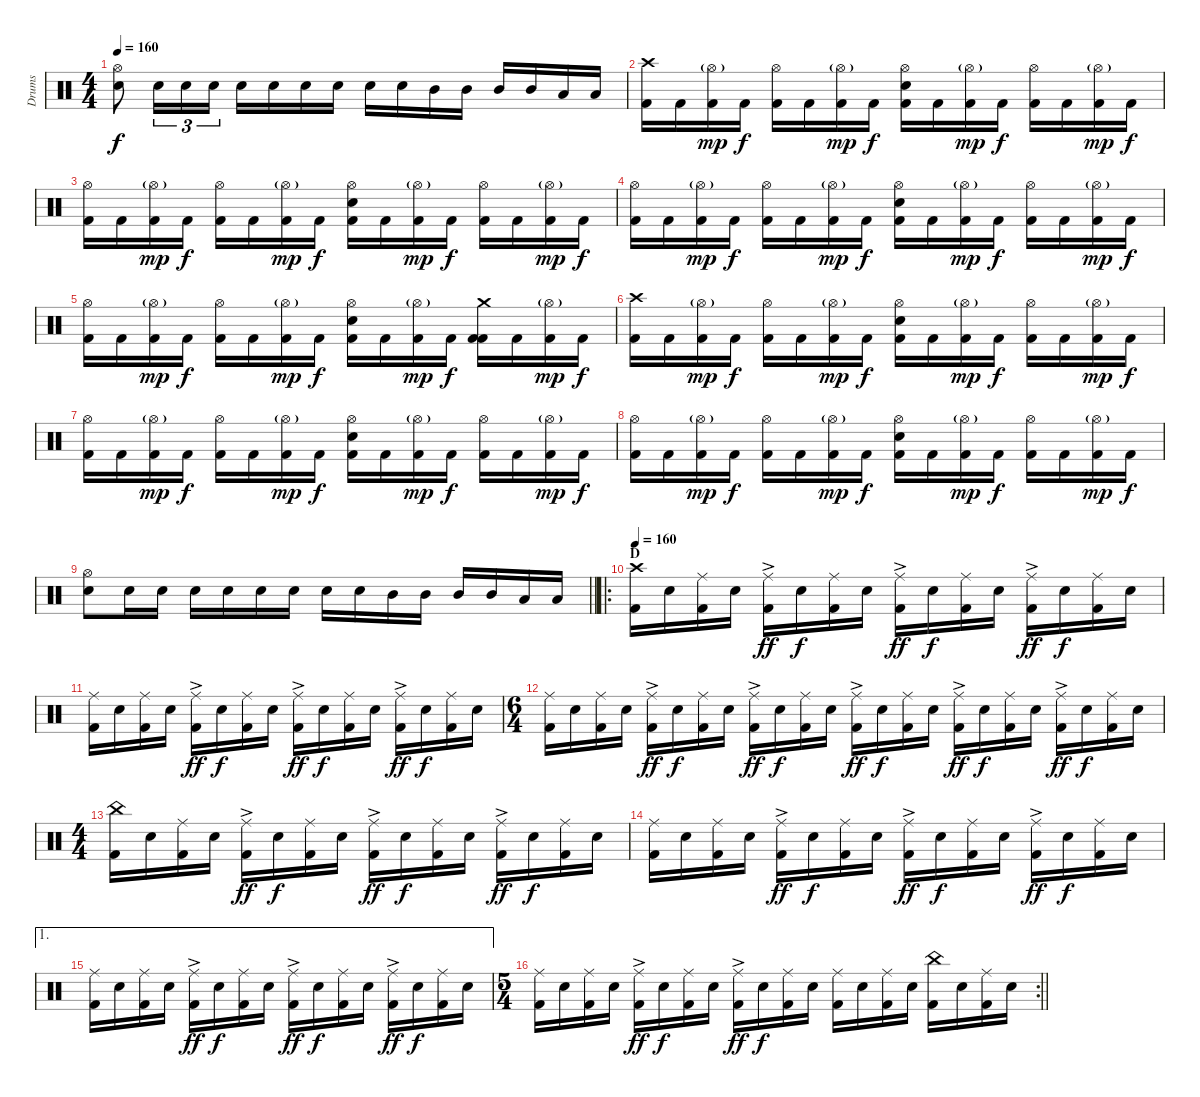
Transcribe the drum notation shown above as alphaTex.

\track ("Drums" "Drums") {instrument percussion}
\staff {score}
\articulation defaults
\ts (4 4)
\tempo 160
\clef neutral
\ks c
("Hi-Hat (open)" "Snare (hit) 2").8{dy f} "Snare (hit) 2".16{tu (3 2)} "Snare (hit) 2".16{tu (3 2)} "Snare (hit) 2".16{tu (3 2)} "Snare (hit) 2".16 "Snare (hit) 2".16 "Snare (hit) 2".16 "Snare (hit) 2".16 "Snare (hit) 2".16 "Snare (hit) 2".16 "Mid Tom (hit)".16 "Mid Tom (hit)".16 "Mid Tom (hit)".16 "Mid Tom (hit)".16 "Low Tom (hit)".16 "Low Tom (hit)".16 |
("Crash high (hit)" "Kick (hit) 2").16 "Kick (hit) 2".16 ("Hi-Hat (open)"{g} "Kick (hit) 2").16{dy mp} "Kick (hit) 2".16{dy f} ("Hi-Hat (open)" "Kick (hit) 2").16 "Kick (hit) 2".16 ("Hi-Hat (open)"{g} "Kick (hit) 2").16{dy mp} "Kick (hit) 2".16{dy f} ("Hi-Hat (open)" "Snare (hit) 2" "Kick (hit) 2").16 "Kick (hit) 2".16 ("Hi-Hat (open)"{g} "Kick (hit) 2").16{dy mp} "Kick (hit) 2".16{dy f} ("Hi-Hat (open)" "Kick (hit) 2").16 "Kick (hit) 2".16 ("Hi-Hat (open)"{g} "Kick (hit) 2").16{dy mp} "Kick (hit) 2".16{dy f} |
("Hi-Hat (open)" "Kick (hit) 2").16 "Kick (hit) 2".16 ("Hi-Hat (open)"{g} "Kick (hit) 2").16{dy mp} "Kick (hit) 2".16{dy f} ("Hi-Hat (open)" "Kick (hit) 2").16 "Kick (hit) 2".16 ("Hi-Hat (open)"{g} "Kick (hit) 2").16{dy mp} "Kick (hit) 2".16{dy f} ("Hi-Hat (open)" "Snare (hit) 2" "Kick (hit) 2").16 "Kick (hit) 2".16 ("Hi-Hat (open)"{g} "Kick (hit) 2").16{dy mp} "Kick (hit) 2".16{dy f} ("Hi-Hat (open)" "Kick (hit) 2").16 "Kick (hit) 2".16 ("Hi-Hat (open)"{g} "Kick (hit) 2").16{dy mp} "Kick (hit) 2".16{dy f} |
("Hi-Hat (open)" "Kick (hit) 2").16 "Kick (hit) 2".16 ("Hi-Hat (open)"{g} "Kick (hit) 2").16{dy mp} "Kick (hit) 2".16{dy f} ("Hi-Hat (open)" "Kick (hit) 2").16 "Kick (hit) 2".16 ("Hi-Hat (open)"{g} "Kick (hit) 2").16{dy mp} "Kick (hit) 2".16{dy f} ("Hi-Hat (open)" "Snare (hit) 2" "Kick (hit) 2").16 "Kick (hit) 2".16 ("Hi-Hat (open)"{g} "Kick (hit) 2").16{dy mp} "Kick (hit) 2".16{dy f} ("Hi-Hat (open)" "Kick (hit) 2").16 "Kick (hit) 2".16 ("Hi-Hat (open)"{g} "Kick (hit) 2").16{dy mp} "Kick (hit) 2".16{dy f} |
("Hi-Hat (open)" "Kick (hit) 2").16 "Kick (hit) 2".16 ("Hi-Hat (open)"{g} "Kick (hit) 2").16{dy mp} "Kick (hit) 2".16{dy f} ("Hi-Hat (open)" "Kick (hit) 2").16 "Kick (hit) 2".16 ("Hi-Hat (open)"{g} "Kick (hit) 2").16{dy mp} "Kick (hit) 2".16{dy f} ("Hi-Hat (open)" "Snare (hit) 2" "Kick (hit) 2").16 "Kick (hit) 2".16 ("Hi-Hat (open)"{g} "Kick (hit) 2").16{dy mp} "Kick (hit) 2".16{dy f} ("Crash medium (hit)" "Kick (hit) 2" "Kick (hit) 2").16 "Kick (hit) 2".16 ("Hi-Hat (open)"{g} "Kick (hit) 2").16{dy mp} "Kick (hit) 2".16{dy f} |
("Crash high (hit)" "Kick (hit) 2").16 "Kick (hit) 2".16 ("Hi-Hat (open)"{g} "Kick (hit) 2").16{dy mp} "Kick (hit) 2".16{dy f} ("Hi-Hat (open)" "Kick (hit) 2").16 "Kick (hit) 2".16 ("Hi-Hat (open)"{g} "Kick (hit) 2").16{dy mp} "Kick (hit) 2".16{dy f} ("Hi-Hat (open)" "Snare (hit) 2" "Kick (hit) 2").16 "Kick (hit) 2".16 ("Hi-Hat (open)"{g} "Kick (hit) 2").16{dy mp} "Kick (hit) 2".16{dy f} ("Hi-Hat (open)" "Kick (hit) 2").16 "Kick (hit) 2".16 ("Hi-Hat (open)"{g} "Kick (hit) 2").16{dy mp} "Kick (hit) 2".16{dy f} |
("Hi-Hat (open)" "Kick (hit) 2").16 "Kick (hit) 2".16 ("Hi-Hat (open)"{g} "Kick (hit) 2").16{dy mp} "Kick (hit) 2".16{dy f} ("Hi-Hat (open)" "Kick (hit) 2").16 "Kick (hit) 2".16 ("Hi-Hat (open)"{g} "Kick (hit) 2").16{dy mp} "Kick (hit) 2".16{dy f} ("Hi-Hat (open)" "Snare (hit) 2" "Kick (hit) 2").16 "Kick (hit) 2".16 ("Hi-Hat (open)"{g} "Kick (hit) 2").16{dy mp} "Kick (hit) 2".16{dy f} ("Hi-Hat (open)" "Kick (hit) 2").16 "Kick (hit) 2".16 ("Hi-Hat (open)"{g} "Kick (hit) 2").16{dy mp} "Kick (hit) 2".16{dy f} |
("Hi-Hat (open)" "Kick (hit) 2").16 "Kick (hit) 2".16 ("Hi-Hat (open)"{g} "Kick (hit) 2").16{dy mp} "Kick (hit) 2".16{dy f} ("Hi-Hat (open)" "Kick (hit) 2").16 "Kick (hit) 2".16 ("Hi-Hat (open)"{g} "Kick (hit) 2").16{dy mp} "Kick (hit) 2".16{dy f} ("Hi-Hat (open)" "Snare (hit) 2" "Kick (hit) 2").16 "Kick (hit) 2".16 ("Hi-Hat (open)"{g} "Kick (hit) 2").16{dy mp} "Kick (hit) 2".16{dy f} ("Hi-Hat (open)" "Kick (hit) 2").16 "Kick (hit) 2".16 ("Hi-Hat (open)"{g} "Kick (hit) 2").16{dy mp} "Kick (hit) 2".16{dy f} |
\barLineRight lightlight
("Hi-Hat (open)" "Snare (hit) 2").8 "Snare (hit) 2".16 "Snare (hit) 2".16 "Snare (hit) 2".16 "Snare (hit) 2".16 "Snare (hit) 2".16 "Snare (hit) 2".16 "Snare (hit) 2".16 "Snare (hit) 2".16 "Mid Tom (hit)".16 "Mid Tom (hit)".16 "Mid Tom (hit)".16 "Mid Tom (hit)".16 "Low Tom (hit)".16 "Low Tom (hit)".16 |
\ro
\section ("" "D")
\tempo 160
("Crash high (hit)" "Kick (hit) 2").16 "Snare (hit) 2".16 ("Ride (middle)" "Kick (hit) 2").16 "Snare (hit) 2".16 ("Ride (middle)"{ac} "Kick (hit) 2").16{dy ff} "Snare (hit) 2".16{dy f} ("Ride (middle)" "Kick (hit) 2").16 "Snare (hit) 2".16 ("Ride (middle)"{ac} "Kick (hit) 2").16{dy ff} "Snare (hit) 2".16{dy f} ("Ride (middle)" "Kick (hit) 2").16 "Snare (hit) 2".16 ("Ride (middle)"{ac} "Kick (hit) 2").16{dy ff} "Snare (hit) 2".16{dy f} ("Ride (middle)" "Kick (hit) 2").16 "Snare (hit) 2".16 |
("Ride (middle)" "Kick (hit) 2").16 "Snare (hit) 2".16 ("Ride (middle)" "Kick (hit) 2").16 "Snare (hit) 2".16 ("Ride (middle)"{ac} "Kick (hit) 2").16{dy ff} "Snare (hit) 2".16{dy f} ("Ride (middle)" "Kick (hit) 2").16 "Snare (hit) 2".16 ("Ride (middle)"{ac} "Kick (hit) 2").16{dy ff} "Snare (hit) 2".16{dy f} ("Ride (middle)" "Kick (hit) 2").16 "Snare (hit) 2".16 ("Ride (middle)"{ac} "Kick (hit) 2").16{dy ff} "Snare (hit) 2".16{dy f} ("Ride (middle)" "Kick (hit) 2").16 "Snare (hit) 2".16 |
\ts (6 4)
("Ride (middle)" "Kick (hit) 2").16 "Snare (hit) 2".16 ("Ride (middle)" "Kick (hit) 2").16 "Snare (hit) 2".16 ("Ride (middle)"{ac} "Kick (hit) 2").16{dy ff} "Snare (hit) 2".16{dy f} ("Ride (middle)" "Kick (hit) 2").16 "Snare (hit) 2".16 ("Ride (middle)"{ac} "Kick (hit) 2").16{dy ff} "Snare (hit) 2".16{dy f} ("Ride (middle)" "Kick (hit) 2").16 "Snare (hit) 2".16 ("Ride (middle)"{ac} "Kick (hit) 2").16{dy ff} "Snare (hit) 2".16{dy f} ("Ride (middle)" "Kick (hit) 2").16 "Snare (hit) 2".16 ("Ride (middle)"{ac} "Kick (hit) 2").16{dy ff} "Snare (hit) 2".16{dy f} ("Ride (middle)" "Kick (hit) 2").16 "Snare (hit) 2".16 ("Ride (middle)"{ac} "Kick (hit) 2").16{dy ff} "Snare (hit) 2".16{dy f} ("Ride (middle)" "Kick (hit) 2").16 "Snare (hit) 2".16 |
\ts (4 4)
("China (hit)" "Kick (hit) 2").16 "Snare (hit) 2".16 ("Ride (middle)" "Kick (hit) 2").16 "Snare (hit) 2".16 ("Ride (middle)"{ac} "Kick (hit) 2").16{dy ff} "Snare (hit) 2".16{dy f} ("Ride (middle)" "Kick (hit) 2").16 "Snare (hit) 2".16 ("Ride (middle)"{ac} "Kick (hit) 2").16{dy ff} "Snare (hit) 2".16{dy f} ("Ride (middle)" "Kick (hit) 2").16 "Snare (hit) 2".16 ("Ride (middle)"{ac} "Kick (hit) 2").16{dy ff} "Snare (hit) 2".16{dy f} ("Ride (middle)" "Kick (hit) 2").16 "Snare (hit) 2".16 |
("Ride (middle)" "Kick (hit) 2").16 "Snare (hit) 2".16 ("Ride (middle)" "Kick (hit) 2").16 "Snare (hit) 2".16 ("Ride (middle)"{ac} "Kick (hit) 2").16{dy ff} "Snare (hit) 2".16{dy f} ("Ride (middle)" "Kick (hit) 2").16 "Snare (hit) 2".16 ("Ride (middle)"{ac} "Kick (hit) 2").16{dy ff} "Snare (hit) 2".16{dy f} ("Ride (middle)" "Kick (hit) 2").16 "Snare (hit) 2".16 ("Ride (middle)"{ac} "Kick (hit) 2").16{dy ff} "Snare (hit) 2".16{dy f} ("Ride (middle)" "Kick (hit) 2").16 "Snare (hit) 2".16 |
\ae 1
("Ride (middle)" "Kick (hit) 2").16 "Snare (hit) 2".16 ("Ride (middle)" "Kick (hit) 2").16 "Snare (hit) 2".16 ("Ride (middle)"{ac} "Kick (hit) 2").16{dy ff} "Snare (hit) 2".16{dy f} ("Ride (middle)" "Kick (hit) 2").16 "Snare (hit) 2".16 ("Ride (middle)"{ac} "Kick (hit) 2").16{dy ff} "Snare (hit) 2".16{dy f} ("Ride (middle)" "Kick (hit) 2").16 "Snare (hit) 2".16 ("Ride (middle)"{ac} "Kick (hit) 2").16{dy ff} "Snare (hit) 2".16{dy f} ("Ride (middle)" "Kick (hit) 2").16 "Snare (hit) 2".16 |
\rc 2
\ts (5 4)
\barLineRight lightlight
("Ride (middle)" "Kick (hit) 2").16 "Snare (hit) 2".16 ("Ride (middle)" "Kick (hit) 2").16 "Snare (hit) 2".16 ("Ride (middle)"{ac} "Kick (hit) 2").16{dy ff} "Snare (hit) 2".16{dy f} ("Ride (middle)" "Kick (hit) 2").16 "Snare (hit) 2".16 ("Ride (middle)"{ac} "Kick (hit) 2").16{dy ff} "Snare (hit) 2".16{dy f} ("Ride (middle)" "Kick (hit) 2").16 "Snare (hit) 2".16 ("Ride (middle)" "Kick (hit) 2").16 "Snare (hit) 2".16 ("Ride (middle)" "Kick (hit) 2").16 "Snare (hit) 2".16 ("China (hit)" "Kick (hit) 2").16 "Snare (hit) 2".16 ("Ride (middle)" "Kick (hit) 2").16 "Snare (hit) 2".16
